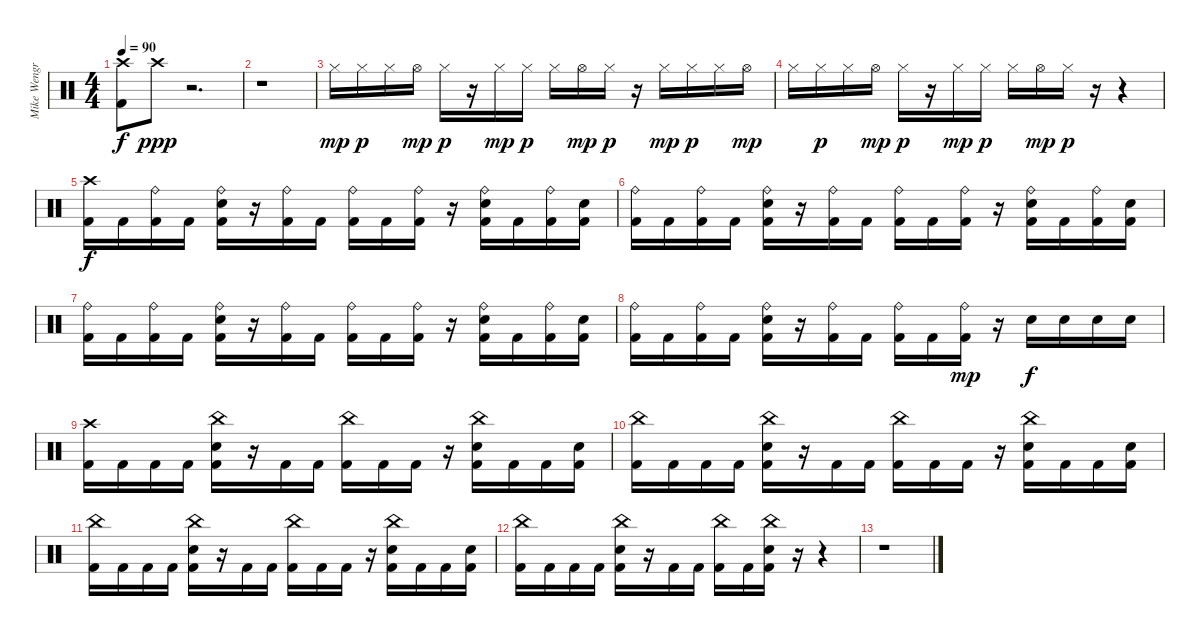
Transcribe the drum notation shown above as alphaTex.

\track ("Mike Wengren - Drums" "Mike Wengr") {instrument percussion}
\staff {score}
\articulation defaults
\ts (4 4)
\tempo 90
\clef neutral
\ks c
("Crash high (hit)" "Kick (hit) 2").8{dy f} "Crash high (hit)".8{dy ppp} r.2{d} |
r.1 |
"Hi-Hat (closed)".16{dy mp} "Hi-Hat (closed)".16{dy p} "Hi-Hat (closed)".16 "Hi-Hat (open)".16{dy mp} "Hi-Hat (closed)".16{dy p} r.16 "Hi-Hat (closed)".16{dy mp} "Hi-Hat (closed)".16{dy p} "Hi-Hat (closed)".16 "Hi-Hat (open)".16{dy mp} "Hi-Hat (closed)".16{dy p} r.16 "Hi-Hat (closed)".16{dy mp} "Hi-Hat (closed)".16{dy p} "Hi-Hat (closed)".16 "Hi-Hat (open)".16{dy mp} |
"Hi-Hat (closed)".16 "Hi-Hat (closed)".16{dy p} "Hi-Hat (closed)".16 "Hi-Hat (open)".16{dy mp} "Hi-Hat (closed)".16{dy p} r.16 "Hi-Hat (closed)".16{dy mp} "Hi-Hat (closed)".16{dy p} "Hi-Hat (closed)".16 "Hi-Hat (open)".16{dy mp} "Hi-Hat (closed)".16{dy p} r.16 r.4 |
("Crash high (hit)" "Kick (hit) 2").16{dy f} "Kick (hit) 2".16 ("Ride (bell)" "Kick (hit) 2").16 "Kick (hit) 2".16 ("Ride (bell)" "Electric Snare (hit)" "Kick (hit) 2").16 r.16 ("Ride (bell)" "Kick (hit) 2").16 "Kick (hit) 2".16 ("Ride (bell)" "Kick (hit) 2").16 "Kick (hit) 2".16 ("Ride (bell)" "Kick (hit) 2").16 r.16 ("Ride (bell)" "Electric Snare (hit)" "Kick (hit) 2").16 "Kick (hit) 2".16 ("Ride (bell)" "Kick (hit) 2").16 ("Electric Snare (hit)" "Kick (hit) 2").16 |
("Ride (bell)" "Kick (hit) 2").16 "Kick (hit) 2".16 ("Ride (bell)" "Kick (hit) 2").16 "Kick (hit) 2".16 ("Ride (bell)" "Electric Snare (hit)" "Kick (hit) 2").16 r.16 ("Ride (bell)" "Kick (hit) 2").16 "Kick (hit) 2".16 ("Ride (bell)" "Kick (hit) 2").16 "Kick (hit) 2".16 ("Ride (bell)" "Kick (hit) 2").16 r.16 ("Ride (bell)" "Electric Snare (hit)" "Kick (hit) 2").16 "Kick (hit) 2".16 ("Ride (bell)" "Kick (hit) 2").16 ("Electric Snare (hit)" "Kick (hit) 2").16 |
("Ride (bell)" "Kick (hit) 2").16 "Kick (hit) 2".16 ("Ride (bell)" "Kick (hit) 2").16 "Kick (hit) 2".16 ("Ride (bell)" "Electric Snare (hit)" "Kick (hit) 2").16 r.16 ("Ride (bell)" "Kick (hit) 2").16 "Kick (hit) 2".16 ("Ride (bell)" "Kick (hit) 2").16 "Kick (hit) 2".16 ("Ride (bell)" "Kick (hit) 2").16 r.16 ("Ride (bell)" "Electric Snare (hit)" "Kick (hit) 2").16 "Kick (hit) 2".16 ("Ride (bell)" "Kick (hit) 2").16 ("Electric Snare (hit)" "Kick (hit) 2").16 |
("Ride (bell)" "Kick (hit) 2").16 "Kick (hit) 2".16 ("Ride (bell)" "Kick (hit) 2").16 "Kick (hit) 2".16 ("Ride (bell)" "Electric Snare (hit)" "Kick (hit) 2").16 r.16 ("Ride (bell)" "Kick (hit) 2").16 "Kick (hit) 2".16 ("Ride (bell)" "Kick (hit) 2").16 "Kick (hit) 2".16 ("Ride (bell)" "Kick (hit) 2").16{dy mp} r.16 "Electric Snare (hit)".16{dy f} "Electric Snare (hit)".16 "Electric Snare (hit)".16 "Electric Snare (hit)".16 |
("Crash high (hit)" "Kick (hit) 2").16 "Kick (hit) 2".16 "Kick (hit) 2".16 "Kick (hit) 2".16 ("China (hit)" "Electric Snare (hit)" "Kick (hit) 2").16 r.16 "Kick (hit) 2".16 "Kick (hit) 2".16 ("China (hit)" "Kick (hit) 2").16 "Kick (hit) 2".16 "Kick (hit) 2".16 r.16 ("China (hit)" "Electric Snare (hit)" "Kick (hit) 2").16 "Kick (hit) 2".16 "Kick (hit) 2".16 ("Electric Snare (hit)" "Kick (hit) 2").16 |
("China (hit)" "Kick (hit) 2").16 "Kick (hit) 2".16 "Kick (hit) 2".16 "Kick (hit) 2".16 ("China (hit)" "Electric Snare (hit)" "Kick (hit) 2").16 r.16 "Kick (hit) 2".16 "Kick (hit) 2".16 ("China (hit)" "Kick (hit) 2").16 "Kick (hit) 2".16 "Kick (hit) 2".16 r.16 ("China (hit)" "Electric Snare (hit)" "Kick (hit) 2").16 "Kick (hit) 2".16 "Kick (hit) 2".16 ("Electric Snare (hit)" "Kick (hit) 2").16 |
("China (hit)" "Kick (hit) 2").16 "Kick (hit) 2".16 "Kick (hit) 2".16 "Kick (hit) 2".16 ("China (hit)" "Electric Snare (hit)" "Kick (hit) 2").16 r.16 "Kick (hit) 2".16 "Kick (hit) 2".16 ("China (hit)" "Kick (hit) 2").16 "Kick (hit) 2".16 "Kick (hit) 2".16 r.16 ("China (hit)" "Electric Snare (hit)" "Kick (hit) 2").16 "Kick (hit) 2".16 "Kick (hit) 2".16 ("Electric Snare (hit)" "Kick (hit) 2").16 |
("China (hit)" "Kick (hit) 2").16 "Kick (hit) 2".16 "Kick (hit) 2".16 "Kick (hit) 2".16 ("China (hit)" "Electric Snare (hit)" "Kick (hit) 2").16 r.16 "Kick (hit) 2".16 "Kick (hit) 2".16 ("China (hit)" "Kick (hit) 2").16 "Kick (hit) 2".16 ("China (hit)" "Electric Snare (hit)" "Kick (hit) 2").16 r.16 r.4 |
r.1
